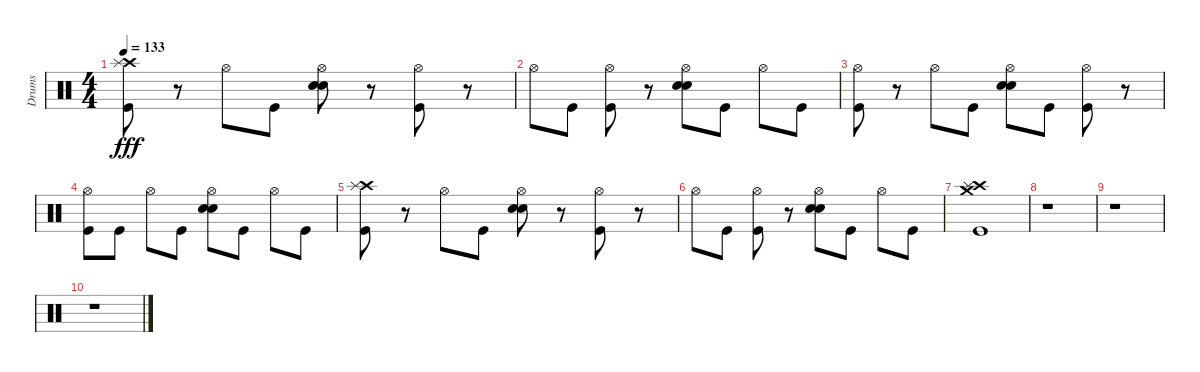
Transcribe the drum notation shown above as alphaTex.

\track ("Drums" "Drums") {instrument percussion}
\staff {score}
\articulation defaults
\ts (4 4)
\tempo 133
\clef neutral
\ks c
("Crash high (hit)" "Splash (hit)" "Kick (hit)").8{dy fff} r.8 "Hi-Hat (open)".8 "Kick (hit)".8 ("Hi-Hat (open)" "Electric Snare (hit)" "Snare (hit) 2").8 r.8 ("Hi-Hat (open)" "Kick (hit)").8 r.8 |
"Hi-Hat (open)".8 "Kick (hit)".8 ("Hi-Hat (open)" "Kick (hit)").8 r.8 ("Hi-Hat (open)" "Electric Snare (hit)" "Snare (hit) 2").8 "Kick (hit)".8 "Hi-Hat (open)".8 "Kick (hit)".8 |
("Hi-Hat (open)" "Kick (hit)").8 r.8 "Hi-Hat (open)".8 "Kick (hit)".8 ("Hi-Hat (open)" "Electric Snare (hit)" "Snare (hit) 2").8 "Kick (hit)".8 ("Hi-Hat (open)" "Kick (hit)").8 r.8 |
("Hi-Hat (open)" "Kick (hit)").8 "Kick (hit)".8 "Hi-Hat (open)".8 "Kick (hit)".8 ("Hi-Hat (open)" "Electric Snare (hit)" "Snare (hit) 2").8 "Kick (hit)".8 "Hi-Hat (open)".8 "Kick (hit)".8 |
("Crash high (hit)" "Splash (hit)" "Kick (hit)").8 r.8 "Hi-Hat (open)".8 "Kick (hit)".8 ("Hi-Hat (open)" "Electric Snare (hit)" "Snare (hit) 2").8 r.8 ("Hi-Hat (open)" "Kick (hit)").8 r.8 |
"Hi-Hat (open)".8 "Kick (hit)".8 ("Hi-Hat (open)" "Kick (hit)").8 r.8 ("Hi-Hat (open)" "Electric Snare (hit)" "Snare (hit) 2").8 "Kick (hit)".8 "Hi-Hat (open)".8 "Kick (hit)".8 |
("Crash high (hit)" "Splash (hit)" "Crash medium (hit)" "Kick (hit)").1 |
r.1 |
r.1 |
r.1
